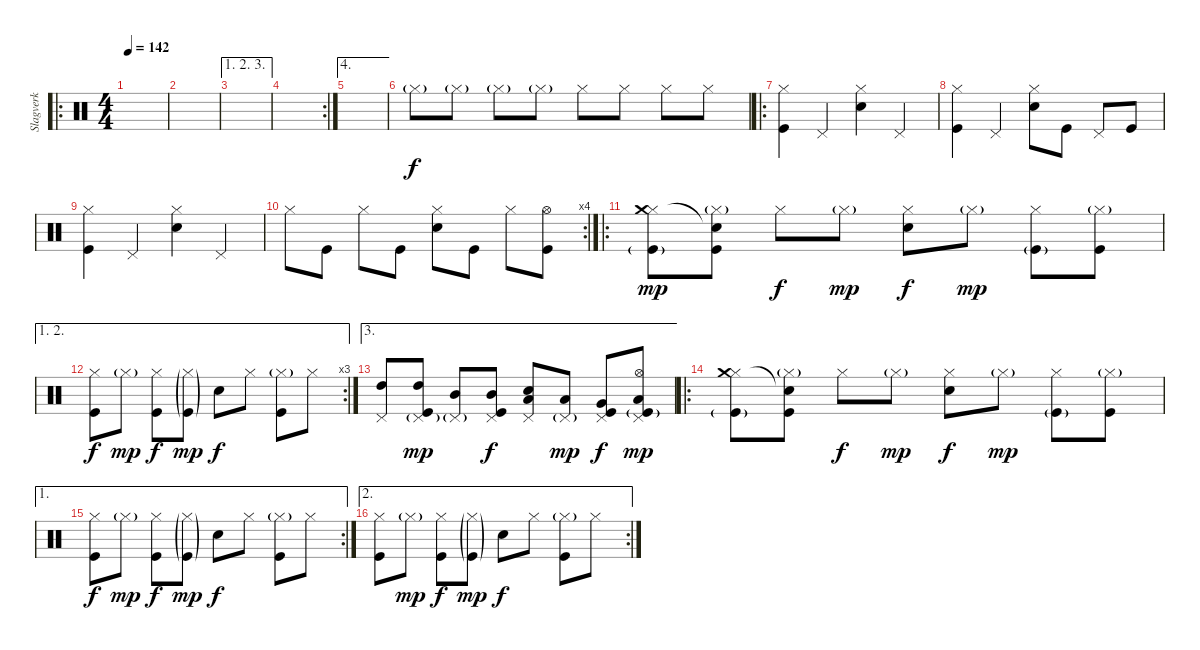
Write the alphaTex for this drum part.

\track ("Slagverk" "Slagverk") {instrument percussion}
\staff {score}
\articulation defaults
\ro
\ts (4 4)
\tempo 142
\clef neutral
\ks c
|
|
\ae (1 2 3)
|
\rc 2
|
\ae 4
|
"Hi-Hat (closed)"{g}.8{volume 7} "Hi-Hat (closed)"{g}.8{volume 16} "Hi-Hat (closed)"{g}.8 "Hi-Hat (closed)"{g}.8 "Hi-Hat (closed)".8{dy f} "Hi-Hat (closed)".8 "Hi-Hat (closed)".8 "Hi-Hat (closed)".8 |
\ro
("Hi-Hat (closed)" "Kick (hit)").4{volume 13} "Pedal Hi-Hat (hit)".4 ("Hi-Hat (closed)" "Snare (hit) 2").4 "Pedal Hi-Hat (hit)".4 |
("Hi-Hat (closed)" "Kick (hit)").4 "Pedal Hi-Hat (hit)".4 ("Hi-Hat (closed)" "Snare (hit) 2").8 "Kick (hit)".8 "Pedal Hi-Hat (hit)".8 "Kick (hit)".8 |
("Hi-Hat (closed)" "Kick (hit)").4 "Pedal Hi-Hat (hit)".4 ("Hi-Hat (closed)" "Snare (hit) 2").4 "Pedal Hi-Hat (hit)".4 |
\rc 4 "Hi-Hat (closed)".8 "Kick (hit)".8 "Hi-Hat (closed)".8 "Kick (hit)".8
("Hi-Hat (closed)" "Snare (hit) 2").8 "Kick (hit)".8 "Hi-Hat (closed)".8 ("Hi-Hat (open)" "Kick (hit)").8 |
\ro
("Hi-Hat (closed)" "Crash medium (hit)" "Kick (hit)"{g}).8{dy mp} ("Hi-Hat (closed)"{g} "Snare (hit)"{t} "Kick (hit)").8 "Hi-Hat (closed)".8{dy f} "Hi-Hat (closed)"{g}.8{dy mp} ("Hi-Hat (closed)" "Snare (hit) 2").8{dy f} "Hi-Hat (closed)"{g}.8{dy mp} ("Hi-Hat (closed)" "Kick (hit)"{g}).8 ("Hi-Hat (closed)"{g} "Kick (hit)").8 |
\ae (1 2)
\rc 3
("Hi-Hat (closed)" "Kick (hit)").8{dy f} "Hi-Hat (closed)"{g}.8{dy mp} ("Hi-Hat (closed)" "Kick (hit)").8{dy f} ("Hi-Hat (closed)"{g} "Kick (hit)"{g}).8{dy mp} "Snare (hit) 2".8{dy f} "Hi-Hat (closed)".8 ("Hi-Hat (closed)"{g} "Kick (hit)").8 "Hi-Hat (closed)".8 |
\ae 3
("High Tom (hit)" "Pedal Hi-Hat (hit)").8 ("High Tom (hit)" "Pedal Hi-Hat (hit)"{g} "Kick (hit)").8{dy mp} ("Mid Tom (hit)" "Pedal Hi-Hat (hit)"{g}).8 ("Mid Tom (hit)" "Pedal Hi-Hat (hit)" "Kick (hit)").8{dy f} ("Low Tom (hit)" "Pedal Hi-Hat (hit)" "Snare (hit) 2").8 ("Low Tom (hit)" "Pedal Hi-Hat (hit)"{g}).8{dy mp} ("Very Low Tom (hit)" "Pedal Hi-Hat (hit)" "Kick (hit)").8{dy f} ("Low Floor Tom (hit)" "Pedal Hi-Hat (hit)" "Hi-Hat (open)" "Kick (hit)"{g}).8{dy mp} |
\ro
("Hi-Hat (closed)" "Crash medium (hit)" "Kick (hit)"{g}).8 ("Hi-Hat (closed)"{g} "Snare (hit)"{t} "Kick (hit)").8 "Hi-Hat (closed)".8{dy f} "Hi-Hat (closed)"{g}.8{dy mp} ("Hi-Hat (closed)" "Snare (hit) 2").8{dy f} "Hi-Hat (closed)"{g}.8{dy mp} ("Hi-Hat (closed)" "Kick (hit)"{g}).8 ("Hi-Hat (closed)"{g} "Kick (hit)").8 |
\ae 1
\rc 2
("Hi-Hat (closed)" "Kick (hit)").8{dy f} "Hi-Hat (closed)"{g}.8{dy mp} ("Hi-Hat (closed)" "Kick (hit)").8{dy f} ("Hi-Hat (closed)"{g} "Kick (hit)"{g}).8{dy mp} "Snare (hit) 2".8{dy f} "Hi-Hat (closed)".8 ("Hi-Hat (closed)"{g} "Kick (hit)").8 "Hi-Hat (closed)".8 |
\ae 2
\rc 2
("Hi-Hat (closed)" "Kick (hit)").8 "Hi-Hat (closed)"{g}.8{dy mp} ("Hi-Hat (closed)" "Kick (hit)").8{dy f} ("Hi-Hat (closed)"{g} "Kick (hit)"{g}).8{dy mp} "Snare (hit) 2".8{dy f} "Hi-Hat (closed)".8 ("Hi-Hat (closed)"{g} "Kick (hit)").8 "Hi-Hat (closed)".8
